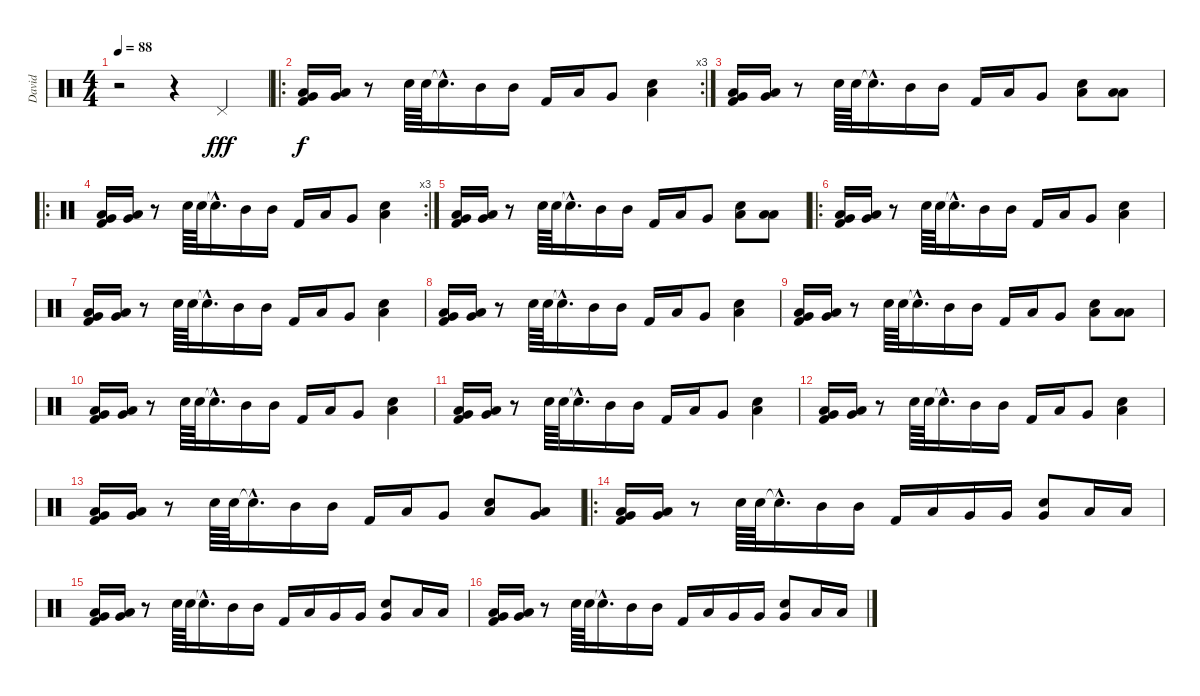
\track ("David" "David") {instrument percussion}
\staff {score}
\articulation defaults
\ts (4 4)
\tempo 88
\clef neutral
\ks c
r.2{dy fff} r.4 "Pedal Hi-Hat (hit)".4 |
\ro
\rc 3
("Low Tom (hit)" "Very Low Tom (hit)" "Kick (hit) 2").16{dy f} ("Low Tom (hit)" "Very Low Tom (hit)").16 r.8 "Snare (hit) 2".64 "Snare (hit) 2".64 "Snare (hit)"{hac t}.16{d} "Mid Tom (hit)".16 "Mid Tom (hit)".16 "Kick (hit) 2".16 "Low Tom (hit)".16 "Very Low Tom (hit)".8 ("Snare (hit) 2" "Low Floor Tom (hit)").4 |
("Low Tom (hit)" "Very Low Tom (hit)" "Kick (hit) 2").16 ("Low Tom (hit)" "Very Low Tom (hit)").16 r.8 "Snare (hit) 2".64 "Snare (hit) 2".64 "Snare (hit)"{hac t}.16{d} "Mid Tom (hit)".16 "Mid Tom (hit)".16 "Kick (hit) 2".16 "Low Tom (hit)".16 "Very Low Tom (hit)".8 ("Snare (hit) 2" "Low Floor Tom (hit)").8 ("Low Tom (hit)" "Low Floor Tom (hit)").8 |
\ro
\rc 3
("Low Tom (hit)" "Very Low Tom (hit)" "Kick (hit) 2").16 ("Low Tom (hit)" "Very Low Tom (hit)").16 r.8 "Snare (hit) 2".64 "Snare (hit) 2".64 "Snare (hit)"{hac t}.16{d} "Mid Tom (hit)".16 "Mid Tom (hit)".16 "Kick (hit) 2".16 "Low Tom (hit)".16 "Very Low Tom (hit)".8 ("Snare (hit) 2" "Low Floor Tom (hit)").4 |
("Low Tom (hit)" "Very Low Tom (hit)" "Kick (hit) 2").16 ("Low Tom (hit)" "Very Low Tom (hit)").16 r.8 "Snare (hit) 2".64 "Snare (hit) 2".64 "Snare (hit)"{hac t}.16{d} "Mid Tom (hit)".16 "Mid Tom (hit)".16 "Kick (hit) 2".16 "Low Tom (hit)".16 "Very Low Tom (hit)".8 ("Snare (hit) 2" "Low Floor Tom (hit)").8 ("Low Tom (hit)" "Low Floor Tom (hit)").8 |
\ro
("Low Tom (hit)" "Very Low Tom (hit)" "Kick (hit) 2").16 ("Low Tom (hit)" "Very Low Tom (hit)").16 r.8 "Snare (hit) 2".64 "Snare (hit) 2".64 "Snare (hit)"{hac t}.16{d} "Mid Tom (hit)".16 "Mid Tom (hit)".16 "Kick (hit) 2".16 "Low Tom (hit)".16 "Very Low Tom (hit)".8 ("Snare (hit) 2" "Low Floor Tom (hit)").4 |
("Low Tom (hit)" "Very Low Tom (hit)" "Kick (hit) 2").16 ("Low Tom (hit)" "Very Low Tom (hit)").16 r.8 "Snare (hit) 2".64 "Snare (hit) 2".64 "Snare (hit)"{hac t}.16{d} "Mid Tom (hit)".16 "Mid Tom (hit)".16 "Kick (hit) 2".16 "Low Tom (hit)".16 "Very Low Tom (hit)".8 ("Snare (hit) 2" "Low Floor Tom (hit)").4 |
("Low Tom (hit)" "Very Low Tom (hit)" "Kick (hit) 2").16 ("Low Tom (hit)" "Very Low Tom (hit)").16 r.8 "Snare (hit) 2".64 "Snare (hit) 2".64 "Snare (hit)"{hac t}.16{d} "Mid Tom (hit)".16 "Mid Tom (hit)".16 "Kick (hit) 2".16 "Low Tom (hit)".16 "Very Low Tom (hit)".8 ("Snare (hit) 2" "Low Floor Tom (hit)").4 |
("Low Tom (hit)" "Very Low Tom (hit)" "Kick (hit) 2").16 ("Low Tom (hit)" "Very Low Tom (hit)").16 r.8 "Snare (hit) 2".64 "Snare (hit) 2".64 "Snare (hit)"{hac t}.16{d} "Mid Tom (hit)".16 "Mid Tom (hit)".16 "Kick (hit) 2".16 "Low Tom (hit)".16 "Very Low Tom (hit)".8 ("Snare (hit) 2" "Low Floor Tom (hit)").8 ("Low Tom (hit)" "Low Floor Tom (hit)").8 |
("Low Tom (hit)" "Very Low Tom (hit)" "Kick (hit) 2").16 ("Low Tom (hit)" "Very Low Tom (hit)").16 r.8 "Snare (hit) 2".64 "Snare (hit) 2".64 "Snare (hit)"{hac t}.16{d} "Mid Tom (hit)".16 "Mid Tom (hit)".16 "Kick (hit) 2".16 "Low Tom (hit)".16 "Very Low Tom (hit)".8 ("Snare (hit) 2" "Low Floor Tom (hit)").4 |
("Low Tom (hit)" "Very Low Tom (hit)" "Kick (hit) 2").16 ("Low Tom (hit)" "Very Low Tom (hit)").16 r.8 "Snare (hit) 2".64 "Snare (hit) 2".64 "Snare (hit)"{hac t}.16{d} "Mid Tom (hit)".16 "Mid Tom (hit)".16 "Kick (hit) 2".16 "Low Tom (hit)".16 "Very Low Tom (hit)".8 ("Snare (hit) 2" "Low Floor Tom (hit)").4 |
("Low Tom (hit)" "Very Low Tom (hit)" "Kick (hit) 2").16 ("Low Tom (hit)" "Very Low Tom (hit)").16 r.8 "Snare (hit) 2".64 "Snare (hit) 2".64 "Snare (hit)"{hac t}.16{d} "Mid Tom (hit)".16 "Mid Tom (hit)".16 "Kick (hit) 2".16 "Low Tom (hit)".16 "Very Low Tom (hit)".8 ("Snare (hit) 2" "Low Floor Tom (hit)").4 |
("Low Tom (hit)" "Very Low Tom (hit)" "Kick (hit) 2").16 ("Low Tom (hit)" "Very Low Tom (hit)").16 r.8 "Snare (hit) 2".64 "Snare (hit) 2".64 "Snare (hit)"{hac t}.16{d} "Mid Tom (hit)".16 "Mid Tom (hit)".16 "Kick (hit) 2".16 "Low Tom (hit)".16 "Very Low Tom (hit)".8 ("Snare (hit) 2" "Low Floor Tom (hit)").8 ("Low Tom (hit)" "Very Low Tom (hit)").8 |
\ro
("Low Tom (hit)" "Very Low Tom (hit)" "Kick (hit) 2").16 ("Low Tom (hit)" "Very Low Tom (hit)").16 r.8 "Snare (hit) 2".64 "Snare (hit) 2".64 "Snare (hit)"{hac t}.16{d} "Mid Tom (hit)".16 "Mid Tom (hit)".16 "Kick (hit) 2".16 "Low Tom (hit)".16 "Very Low Tom (hit)".16 "Very Low Tom (hit)".16 ("Very Low Tom (hit)" "Snare (hit) 2").8 "Low Floor Tom (hit)".16 "Low Floor Tom (hit)".16 |
("Low Tom (hit)" "Very Low Tom (hit)" "Kick (hit) 2").16 ("Low Tom (hit)" "Very Low Tom (hit)").16 r.8 "Snare (hit) 2".64 "Snare (hit) 2".64 "Snare (hit)"{hac t}.16{d} "Mid Tom (hit)".16 "Mid Tom (hit)".16 "Kick (hit) 2".16 "Low Tom (hit)".16 "Very Low Tom (hit)".16 "Very Low Tom (hit)".16 ("Very Low Tom (hit)" "Snare (hit) 2").8 "Low Floor Tom (hit)".16 "Low Floor Tom (hit)".16 |
("Low Tom (hit)" "Very Low Tom (hit)" "Kick (hit) 2").16 ("Low Tom (hit)" "Very Low Tom (hit)").16 r.8 "Snare (hit) 2".64 "Snare (hit) 2".64 "Snare (hit)"{hac t}.16{d} "Mid Tom (hit)".16 "Mid Tom (hit)".16 "Kick (hit) 2".16 "Low Tom (hit)".16 "Very Low Tom (hit)".16 "Very Low Tom (hit)".16 ("Very Low Tom (hit)" "Snare (hit) 2").8 "Low Floor Tom (hit)".16 "Low Floor Tom (hit)".16
